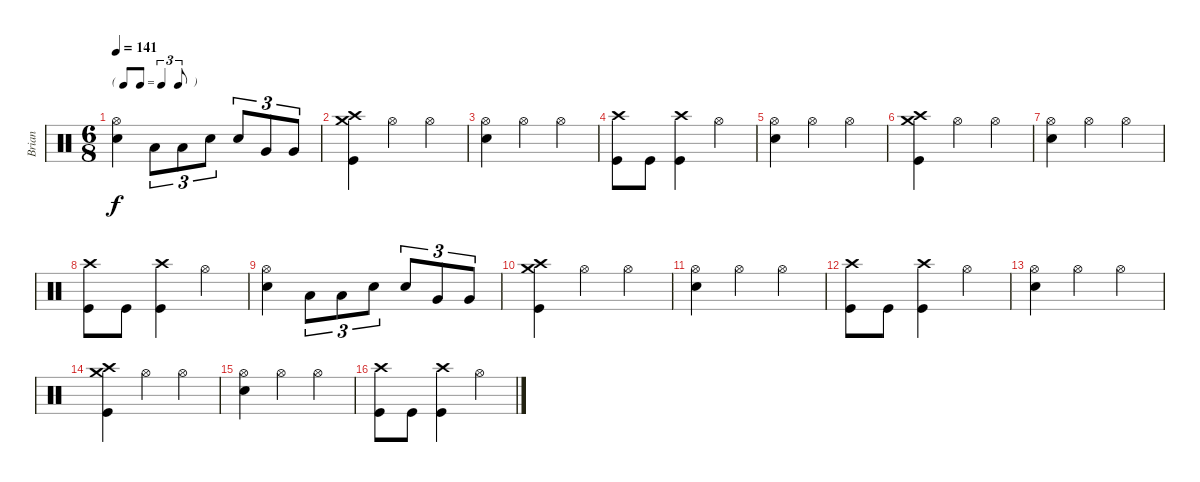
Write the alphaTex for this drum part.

\track ("Brian" "Brian") {instrument percussion}
\staff {score}
\articulation defaults
\ts (6 8)
\tf triplet8th
\tempo 141
\clef neutral
\ks c
("Hi-Hat (open)" "Electric Snare (hit)").4{dy f} "Low Tom (hit)".8{tu (3 2)} "Low Tom (hit)".8{tu (3 2)} "Electric Snare (hit)".8{tu (3 2)} "Electric Snare (hit)".8{tu (3 2)} "Very Low Tom (hit)".8{tu (3 2)} "Very Low Tom (hit)".8{tu (3 2)} |
("Crash medium (hit)" "Crash high (hit)" "Kick (hit)").4 "Hi-Hat (open)".4 "Hi-Hat (open)".4 |
("Hi-Hat (open)" "Electric Snare (hit)").4 "Hi-Hat (open)".4 "Hi-Hat (open)".4 |
("Crash high (hit)" "Kick (hit)").8 "Kick (hit)".8 ("Crash high (hit)" "Kick (hit)").4 "Hi-Hat (open)".4 |
("Hi-Hat (open)" "Electric Snare (hit)").4 "Hi-Hat (open)".4 "Hi-Hat (open)".4 |
("Crash medium (hit)" "Crash high (hit)" "Kick (hit)").4 "Hi-Hat (open)".4 "Hi-Hat (open)".4 |
("Hi-Hat (open)" "Electric Snare (hit)").4 "Hi-Hat (open)".4 "Hi-Hat (open)".4 |
("Crash high (hit)" "Kick (hit)").8 "Kick (hit)".8 ("Crash high (hit)" "Kick (hit)").4 "Hi-Hat (open)".4 |
("Hi-Hat (open)" "Electric Snare (hit)").4 "Low Tom (hit)".8{tu (3 2)} "Low Tom (hit)".8{tu (3 2)} "Electric Snare (hit)".8{tu (3 2)} "Electric Snare (hit)".8{tu (3 2)} "Very Low Tom (hit)".8{tu (3 2)} "Very Low Tom (hit)".8{tu (3 2)} |
("Crash medium (hit)" "Crash high (hit)" "Kick (hit)").4 "Hi-Hat (open)".4 "Hi-Hat (open)".4 |
("Hi-Hat (open)" "Electric Snare (hit)").4 "Hi-Hat (open)".4 "Hi-Hat (open)".4 |
("Crash high (hit)" "Kick (hit)").8 "Kick (hit)".8 ("Crash high (hit)" "Kick (hit)").4 "Hi-Hat (open)".4 |
("Hi-Hat (open)" "Electric Snare (hit)").4 "Hi-Hat (open)".4 "Hi-Hat (open)".4 |
("Crash medium (hit)" "Crash high (hit)" "Kick (hit)").4 "Hi-Hat (open)".4 "Hi-Hat (open)".4 |
("Hi-Hat (open)" "Electric Snare (hit)").4 "Hi-Hat (open)".4 "Hi-Hat (open)".4 |
("Crash high (hit)" "Kick (hit)").8 "Kick (hit)".8 ("Crash high (hit)" "Kick (hit)").4 "Hi-Hat (open)".4
